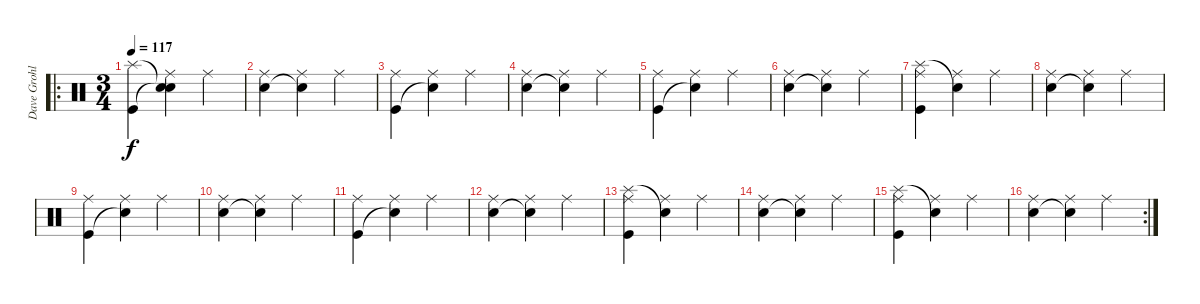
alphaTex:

\track ("Dave Grohl" "Dave Grohl") {instrument percussion}
\staff {score}
\articulation defaults
\ro
\ts (3 4)
\tempo 117
\clef neutral
\ks c
("Splash (hit)" "Kick (hit)").4{dy f} ("Snare (hit)"{t} "Snare (hit)"{t} "Ride (middle)").4 "Ride (middle)".4 |
("Electric Snare (hit)" "Ride (middle)").4 ("Snare (hit)"{t} "Ride (middle)").4 "Ride (middle)".4 |
("Kick (hit)" "Ride (middle)").4 ("Snare (hit)"{t} "Ride (middle)").4 "Ride (middle)".4 |
("Electric Snare (hit)" "Ride (middle)").4 ("Snare (hit)"{t} "Ride (middle)").4 "Ride (middle)".4 |
("Kick (hit)" "Ride (middle)").4 ("Snare (hit)"{t} "Ride (middle)").4 "Ride (middle)".4 |
("Electric Snare (hit)" "Ride (middle)").4 ("Snare (hit)"{t} "Ride (middle)").4 "Ride (middle)".4 |
("Splash (hit)" "Kick (hit)" "Ride (middle)").4 ("Snare (hit)"{t} "Ride (middle)").4 "Ride (middle)".4 |
("Electric Snare (hit)" "Ride (middle)").4 ("Snare (hit)"{t} "Ride (middle)").4 "Ride (middle)".4 |
("Kick (hit)" "Ride (middle)").4 ("Snare (hit)"{t} "Ride (middle)").4 "Ride (middle)".4 |
("Electric Snare (hit)" "Ride (middle)").4 ("Snare (hit)"{t} "Ride (middle)").4 "Ride (middle)".4 |
("Kick (hit)" "Ride (middle)").4 ("Snare (hit)"{t} "Ride (middle)").4 "Ride (middle)".4 |
("Electric Snare (hit)" "Ride (middle)").4 ("Snare (hit)"{t} "Ride (middle)").4 "Ride (middle)".4 |
("Splash (hit)" "Kick (hit)" "Ride (middle)").4 ("Snare (hit)"{t} "Ride (middle)").4 "Ride (middle)".4 |
("Electric Snare (hit)" "Ride (middle)").4 ("Snare (hit)"{t} "Ride (middle)").4 "Ride (middle)".4 |
("Splash (hit)" "Kick (hit)" "Ride (middle)").4 ("Snare (hit)"{t} "Ride (middle)").4 "Ride (middle)".4 |
\rc 2
("Electric Snare (hit)" "Ride (middle)").4 ("Snare (hit)"{t} "Ride (middle)").4 "Ride (middle)".4
